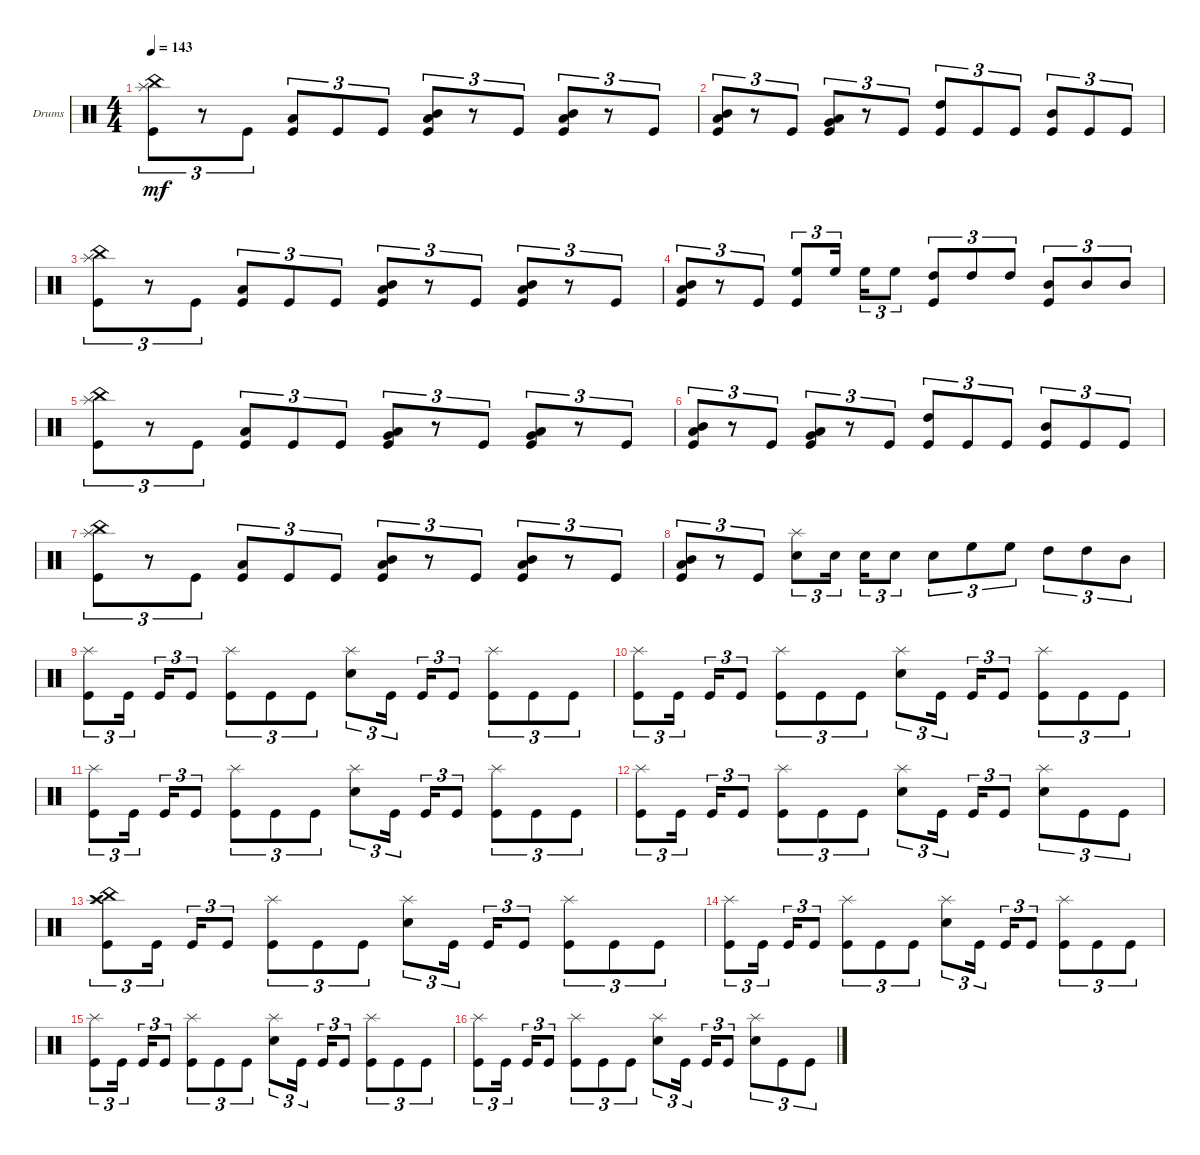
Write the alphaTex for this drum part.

\bracketExtendMode groupsimilarinstruments
\firstSystemTrackNameOrientation horizontal
\otherSystemsTrackNameOrientation horizontal
\track ("death drumz" "Drums") {instrument percussion}
\staff {score}
\articulation defaults
\ts (4 4)
\tempo 143
\clef neutral
\ks c
("China (hit)" "Splash (hit)" "Kick (hit)").8{tu (3 2) dy mf} r.8{tu (3 2)} "Kick (hit)".8{tu (3 2)} ("Kick (hit)" "Low Tom (hit)").8{tu (3 2)} "Kick (hit)".8{tu (3 2)} "Kick (hit)".8{tu (3 2)} ("Kick (hit)" "Mid Tom (hit)" "Low Tom (hit)").8{tu (3 2)} r.8{tu (3 2)} "Kick (hit)".8{tu (3 2)} ("Kick (hit)" "Mid Tom (hit)" "Low Tom (hit)").8{tu (3 2)} r.8{tu (3 2)} "Kick (hit)".8{tu (3 2)} |
("Kick (hit)" "Mid Tom (hit)" "Low Tom (hit)").8{tu (3 2)} r.8{tu (3 2)} "Kick (hit)".8{tu (3 2)} ("Kick (hit)" "Very Low Tom (hit)" "Low Tom (hit)").8{tu (3 2)} r.8{tu (3 2)} "Kick (hit)".8{tu (3 2)} ("Kick (hit)" "High Tom (hit)").8{tu (3 2)} "Kick (hit)".8{tu (3 2)} "Kick (hit)".8{tu (3 2)} ("Kick (hit)" "Mid Tom (hit)").8{tu (3 2)} "Kick (hit)".8{tu (3 2)} "Kick (hit)".8{tu (3 2)} |
("China (hit)" "Splash (hit)" "Kick (hit)").8{tu (3 2)} r.8{tu (3 2)} "Kick (hit)".8{tu (3 2)} ("Kick (hit)" "Low Tom (hit)").8{tu (3 2)} "Kick (hit)".8{tu (3 2)} "Kick (hit)".8{tu (3 2)} ("Kick (hit)" "Mid Tom (hit)" "Low Tom (hit)").8{tu (3 2)} r.8{tu (3 2)} "Kick (hit)".8{tu (3 2)} ("Kick (hit)" "Mid Tom (hit)" "Low Tom (hit)").8{tu (3 2)} r.8{tu (3 2)} "Kick (hit)".8{tu (3 2)} |
("Kick (hit)" "Mid Tom (hit)" "Low Tom (hit)").8{tu (3 2)} r.8{tu (3 2)} "Kick (hit)".8{tu (3 2)} ("High Floor Tom (hit)" "Kick (hit)").8{tu (3 2)} "High Floor Tom (hit)".16{tu (3 2)} "High Floor Tom (hit)".16{tu (3 2)} "High Floor Tom (hit)".8{tu (3 2)} ("High Tom (hit)" "Kick (hit)").8{tu (3 2)} "High Tom (hit)".8{tu (3 2)} "High Tom (hit)".8{tu (3 2)} ("Mid Tom (hit)" "Kick (hit)").8{tu (3 2)} "Mid Tom (hit)".8{tu (3 2)} "Mid Tom (hit)".8{tu (3 2)} |
("China (hit)" "Splash (hit)" "Kick (hit)").8{tu (3 2)} r.8{tu (3 2)} "Kick (hit)".8{tu (3 2)} ("Kick (hit)" "Low Tom (hit)").8{tu (3 2)} "Kick (hit)".8{tu (3 2)} "Kick (hit)".8{tu (3 2)} ("Kick (hit)" "Low Tom (hit)" "Very Low Tom (hit)").8{tu (3 2)} r.8{tu (3 2)} "Kick (hit)".8{tu (3 2)} ("Kick (hit)" "Low Tom (hit)" "Very Low Tom (hit)").8{tu (3 2)} r.8{tu (3 2)} "Kick (hit)".8{tu (3 2)} |
("Kick (hit)" "Mid Tom (hit)" "Low Tom (hit)").8{tu (3 2)} r.8{tu (3 2)} "Kick (hit)".8{tu (3 2)} ("Kick (hit)" "Very Low Tom (hit)" "Low Tom (hit)").8{tu (3 2)} r.8{tu (3 2)} "Kick (hit)".8{tu (3 2)} ("Kick (hit)" "High Tom (hit)").8{tu (3 2)} "Kick (hit)".8{tu (3 2)} "Kick (hit)".8{tu (3 2)} ("Kick (hit)" "Mid Tom (hit)").8{tu (3 2)} "Kick (hit)".8{tu (3 2)} "Kick (hit)".8{tu (3 2)} |
("China (hit)" "Splash (hit)" "Kick (hit)").8{tu (3 2)} r.8{tu (3 2)} "Kick (hit)".8{tu (3 2)} ("Kick (hit)" "Low Tom (hit)").8{tu (3 2)} "Kick (hit)".8{tu (3 2)} "Kick (hit)".8{tu (3 2)} ("Kick (hit)" "Mid Tom (hit)" "Low Tom (hit)").8{tu (3 2)} r.8{tu (3 2)} "Kick (hit)".8{tu (3 2)} ("Kick (hit)" "Mid Tom (hit)" "Low Tom (hit)").8{tu (3 2)} r.8{tu (3 2)} "Kick (hit)".8{tu (3 2)} |
("Kick (hit)" "Mid Tom (hit)" "Low Tom (hit)").8{tu (3 2)} r.8{tu (3 2)} "Kick (hit)".8{tu (3 2)} ("Snare (hit) 2" "Splash (hit)").8{tu (3 2)} "Snare (hit) 2".16{tu (3 2)} "Snare (hit) 2".16{tu (3 2)} "Snare (hit) 2".8{tu (3 2)} "Snare (hit) 2".8{tu (3 2)} "High Floor Tom (hit)".8{tu (3 2)} "High Floor Tom (hit)".8{tu (3 2)} "High Tom (hit)".8{tu (3 2)} "High Tom (hit)".8{tu (3 2)} "Mid Tom (hit)".8{tu (3 2)} |
("Kick (hit)" "Splash (hit)").8{tu (3 2)} "Kick (hit)".16{tu (3 2)} "Kick (hit)".16{tu (3 2)} "Kick (hit)".8{tu (3 2)} ("Kick (hit)" "Splash (hit)").8{tu (3 2)} "Kick (hit)".8{tu (3 2)} "Kick (hit)".8{tu (3 2)} ("Snare (hit) 2" "Splash (hit)").8{tu (3 2)} "Kick (hit)".16{tu (3 2)} "Kick (hit)".16{tu (3 2)} "Kick (hit)".8{tu (3 2)} ("Kick (hit)" "Splash (hit)").8{tu (3 2)} "Kick (hit)".8{tu (3 2)} "Kick (hit)".8{tu (3 2)} |
("Kick (hit)" "Splash (hit)").8{tu (3 2)} "Kick (hit)".16{tu (3 2)} "Kick (hit)".16{tu (3 2)} "Kick (hit)".8{tu (3 2)} ("Kick (hit)" "Splash (hit)").8{tu (3 2)} "Kick (hit)".8{tu (3 2)} "Kick (hit)".8{tu (3 2)} ("Snare (hit) 2" "Splash (hit)").8{tu (3 2)} "Kick (hit)".16{tu (3 2)} "Kick (hit)".16{tu (3 2)} "Kick (hit)".8{tu (3 2)} ("Kick (hit)" "Splash (hit)").8{tu (3 2)} "Kick (hit)".8{tu (3 2)} "Kick (hit)".8{tu (3 2)} |
("Kick (hit)" "Splash (hit)").8{tu (3 2)} "Kick (hit)".16{tu (3 2)} "Kick (hit)".16{tu (3 2)} "Kick (hit)".8{tu (3 2)} ("Kick (hit)" "Splash (hit)").8{tu (3 2)} "Kick (hit)".8{tu (3 2)} "Kick (hit)".8{tu (3 2)} ("Snare (hit) 2" "Splash (hit)").8{tu (3 2)} "Kick (hit)".16{tu (3 2)} "Kick (hit)".16{tu (3 2)} "Kick (hit)".8{tu (3 2)} ("Kick (hit)" "Splash (hit)").8{tu (3 2)} "Kick (hit)".8{tu (3 2)} "Kick (hit)".8{tu (3 2)} |
("Kick (hit)" "Splash (hit)").8{tu (3 2)} "Kick (hit)".16{tu (3 2)} "Kick (hit)".16{tu (3 2)} "Kick (hit)".8{tu (3 2)} ("Kick (hit)" "Splash (hit)").8{tu (3 2)} "Kick (hit)".8{tu (3 2)} "Kick (hit)".8{tu (3 2)} ("Snare (hit) 2" "Splash (hit)").8{tu (3 2)} "Kick (hit)".16{tu (3 2)} "Kick (hit)".16{tu (3 2)} "Kick (hit)".8{tu (3 2)} ("Splash (hit)" "Snare (hit) 2").8{tu (3 2)} "Kick (hit)".8{tu (3 2)} "Kick (hit)".8{tu (3 2)} |
("Kick (hit)" "Splash (hit)" "China (hit)" "Crash high (hit)").8{tu (3 2)} "Kick (hit)".16{tu (3 2)} "Kick (hit)".16{tu (3 2)} "Kick (hit)".8{tu (3 2)} ("Kick (hit)" "Splash (hit)").8{tu (3 2)} "Kick (hit)".8{tu (3 2)} "Kick (hit)".8{tu (3 2)} ("Snare (hit) 2" "Splash (hit)").8{tu (3 2)} "Kick (hit)".16{tu (3 2)} "Kick (hit)".16{tu (3 2)} "Kick (hit)".8{tu (3 2)} ("Kick (hit)" "Splash (hit)").8{tu (3 2)} "Kick (hit)".8{tu (3 2)} "Kick (hit)".8{tu (3 2)} |
("Kick (hit)" "Splash (hit)").8{tu (3 2)} "Kick (hit)".16{tu (3 2)} "Kick (hit)".16{tu (3 2)} "Kick (hit)".8{tu (3 2)} ("Kick (hit)" "Splash (hit)").8{tu (3 2)} "Kick (hit)".8{tu (3 2)} "Kick (hit)".8{tu (3 2)} ("Snare (hit) 2" "Splash (hit)").8{tu (3 2)} "Kick (hit)".16{tu (3 2)} "Kick (hit)".16{tu (3 2)} "Kick (hit)".8{tu (3 2)} ("Kick (hit)" "Splash (hit)").8{tu (3 2)} "Kick (hit)".8{tu (3 2)} "Kick (hit)".8{tu (3 2)} |
("Kick (hit)" "Splash (hit)").8{tu (3 2)} "Kick (hit)".16{tu (3 2)} "Kick (hit)".16{tu (3 2)} "Kick (hit)".8{tu (3 2)} ("Kick (hit)" "Splash (hit)").8{tu (3 2)} "Kick (hit)".8{tu (3 2)} "Kick (hit)".8{tu (3 2)} ("Snare (hit) 2" "Splash (hit)").8{tu (3 2)} "Kick (hit)".16{tu (3 2)} "Kick (hit)".16{tu (3 2)} "Kick (hit)".8{tu (3 2)} ("Kick (hit)" "Splash (hit)").8{tu (3 2)} "Kick (hit)".8{tu (3 2)} "Kick (hit)".8{tu (3 2)} |
("Kick (hit)" "Splash (hit)").8{tu (3 2)} "Kick (hit)".16{tu (3 2)} "Kick (hit)".16{tu (3 2)} "Kick (hit)".8{tu (3 2)} ("Kick (hit)" "Splash (hit)").8{tu (3 2)} "Kick (hit)".8{tu (3 2)} "Kick (hit)".8{tu (3 2)} ("Snare (hit) 2" "Splash (hit)").8{tu (3 2)} "Kick (hit)".16{tu (3 2)} "Kick (hit)".16{tu (3 2)} "Kick (hit)".8{tu (3 2)} ("Splash (hit)" "Snare (hit) 2").8{tu (3 2)} "Kick (hit)".8{tu (3 2)} "Kick (hit)".8{tu (3 2)}
